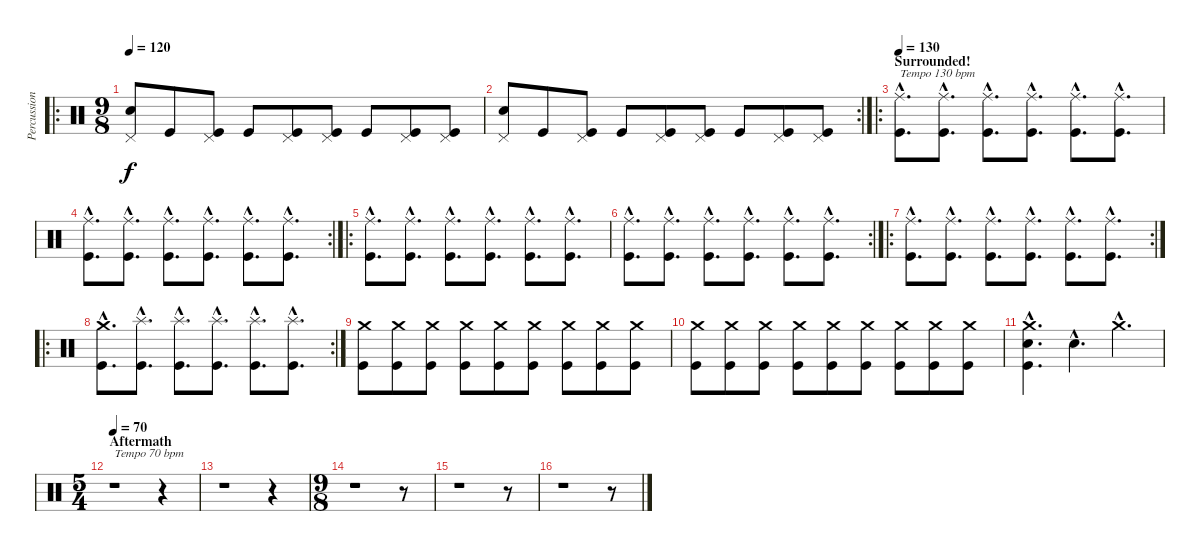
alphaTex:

\track ("Percussion" "Percussion") {instrument percussion}
\staff {score}
\articulation defaults
\ro
\ts (9 8)
\tempo 120
\clef neutral
\ks c
("Pedal Hi-Hat (hit)" "Snare (hit) 2").8{dy f} "Kick (hit)".8 ("Pedal Hi-Hat (hit)" "Kick (hit)").8 "Kick (hit)".8 ("Pedal Hi-Hat (hit)" "Kick (hit)").8 ("Pedal Hi-Hat (hit)" "Kick (hit)").8 "Kick (hit)".8 ("Pedal Hi-Hat (hit)" "Kick (hit)").8 ("Pedal Hi-Hat (hit)" "Kick (hit)").8 |
\rc 2
("Pedal Hi-Hat (hit)" "Snare (hit) 2").8 "Kick (hit)".8 ("Pedal Hi-Hat (hit)" "Kick (hit)").8 "Kick (hit)".8 ("Pedal Hi-Hat (hit)" "Kick (hit)").8 ("Pedal Hi-Hat (hit)" "Kick (hit)").8 "Kick (hit)".8 ("Pedal Hi-Hat (hit)" "Kick (hit)").8 ("Pedal Hi-Hat (hit)" "Kick (hit)").8 |
\ro
\section ("" "Surrounded!")
\tempo 130
("Ride (middle)"{hac} "Kick (hit)"{hac}).8{d txt "Tempo 130 bpm"} ("Ride (middle)"{hac} "Kick (hit)"{hac}).8{d} ("Ride (middle)"{hac} "Kick (hit)"{hac}).8{d} ("Ride (middle)"{hac} "Kick (hit)"{hac}).8{d} ("Ride (middle)"{hac} "Kick (hit)"{hac}).8{d} ("Ride (middle)"{hac} "Kick (hit)"{hac}).8{d} |
\rc 2
("Ride (middle)"{hac} "Kick (hit)"{hac}).8{d} ("Ride (middle)"{hac} "Kick (hit)"{hac}).8{d} ("Ride (middle)"{hac} "Kick (hit)"{hac}).8{d} ("Ride (middle)"{hac} "Kick (hit)"{hac}).8{d} ("Ride (middle)"{hac} "Kick (hit)"{hac}).8{d} ("Ride (middle)"{hac} "Kick (hit)"{hac}).8{d} |
\ro
("Ride (middle)"{hac} "Kick (hit)"{hac}).8{d} ("Ride (middle)"{hac} "Kick (hit)"{hac}).8{d} ("Ride (middle)"{hac} "Kick (hit)"{hac}).8{d} ("Ride (middle)"{hac} "Kick (hit)"{hac}).8{d} ("Ride (middle)"{hac} "Kick (hit)"{hac}).8{d} ("Ride (middle)"{hac} "Kick (hit)"{hac}).8{d} |
\rc 2
("Ride (middle)"{hac} "Kick (hit)"{hac}).8{d} ("Ride (middle)"{hac} "Kick (hit)"{hac}).8{d} ("Ride (middle)"{hac} "Kick (hit)"{hac}).8{d} ("Ride (middle)"{hac} "Kick (hit)"{hac}).8{d} ("Ride (middle)"{hac} "Kick (hit)"{hac}).8{d} ("Ride (middle)"{hac} "Kick (hit)"{hac}).8{d} |
\ro
\rc 2
("Ride (middle)"{hac} "Kick (hit)"{hac}).8{d} ("Ride (middle)"{hac} "Kick (hit)"{hac}).8{d} ("Ride (middle)"{hac} "Kick (hit)"{hac}).8{d} ("Ride (middle)"{hac} "Kick (hit)"{hac}).8{d} ("Ride (middle)"{hac} "Kick (hit)"{hac}).8{d} ("Ride (middle)"{hac} "Kick (hit)"{hac}).8{d} |
\ro
\rc 2
("Crash medium (hit)"{hac} "Kick (hit)"{hac}).8{d} ("Splash (hit)"{hac} "Kick (hit)"{hac}).8{d} ("Splash (hit)"{hac} "Kick (hit)"{hac}).8{d} ("Splash (hit)"{hac} "Kick (hit)"{hac}).8{d} ("Splash (hit)"{hac} "Kick (hit)"{hac}).8{d} ("Splash (hit)"{hac} "Kick (hit)"{hac}).8{d} |
("Crash medium (hit)" "Kick (hit)").8 ("Crash medium (hit)" "Kick (hit)").8 ("Crash medium (hit)" "Kick (hit)").8 ("Crash medium (hit)" "Kick (hit)").8 ("Crash medium (hit)" "Kick (hit)").8 ("Crash medium (hit)" "Kick (hit)").8 ("Crash medium (hit)" "Kick (hit)").8 ("Crash medium (hit)" "Kick (hit)").8 ("Crash medium (hit)" "Kick (hit)").8 |
("Crash medium (hit)" "Kick (hit)").8 ("Crash medium (hit)" "Kick (hit)").8 ("Crash medium (hit)" "Kick (hit)").8 ("Crash medium (hit)" "Kick (hit)").8 ("Crash medium (hit)" "Kick (hit)").8 ("Crash medium (hit)" "Kick (hit)").8 ("Crash medium (hit)" "Kick (hit)").8 ("Crash medium (hit)" "Kick (hit)").8 ("Crash medium (hit)" "Kick (hit)").8 |
("Crash medium (hit)"{hac} "Snare (hit) 2"{hac} "Kick (hit)"{hac}).4{d} "Snare (hit) 2"{hac}.4{d} "Crash medium (hit)"{hac}.4{d} |
\ts (5 4)
\section ("" "Aftermath")
\tempo 70
r.1{txt "Tempo 70 bpm"} r.4 |
r.1 r.4 |
\ts (9 8)
r.1 r.8 |
r.1 r.8 |
r.1 r.8
